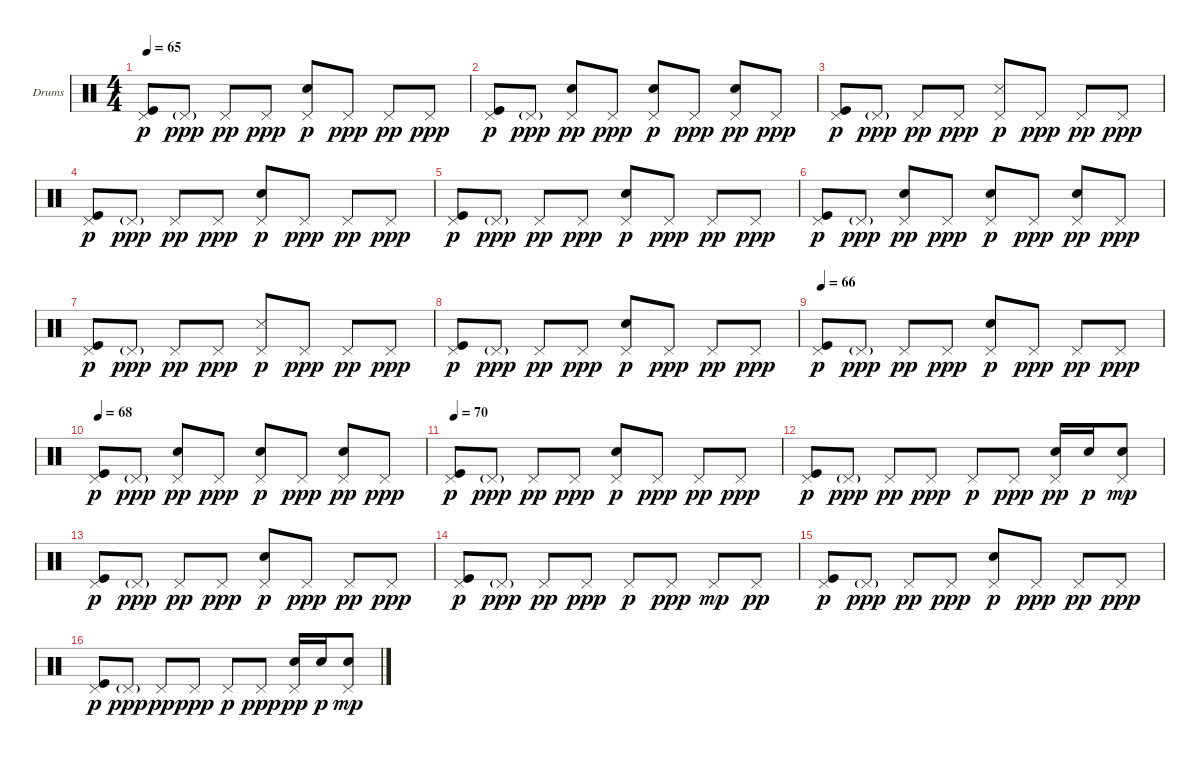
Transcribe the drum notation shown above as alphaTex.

\defaultSystemsLayout 4
\bracketExtendMode groupsimilarinstruments
\firstSystemTrackNameOrientation horizontal
\otherSystemsTrackNameOrientation horizontal
\track ("Jeremiah Green" "Drums") {instrument percussion}
\staff {score}
\articulation defaults
\ts (4 4)
\tempo 65
\clef neutral
\scale
0.333333
\ks c
("Pedal Hi-Hat (hit)" "Kick (hit)").8{dy p} "Pedal Hi-Hat (hit)"{g}.8{dy ppp} "Pedal Hi-Hat (hit)".8{dy pp} "Pedal Hi-Hat (hit)".8{dy ppp} ("Snare (hit) 2" "Pedal Hi-Hat (hit)").8{dy p} "Pedal Hi-Hat (hit)".8{dy ppp} "Pedal Hi-Hat (hit)".8{dy pp} "Pedal Hi-Hat (hit)".8{dy ppp} |
\scale
0.333333 ("Pedal Hi-Hat (hit)" "Kick (hit)").8{dy p} "Pedal Hi-Hat (hit)"{g}.8{dy ppp} ("Pedal Hi-Hat (hit)" "Snare (hit) 2").8{dy pp} "Pedal Hi-Hat (hit)".8{dy ppp} ("Snare (hit) 2" "Pedal Hi-Hat (hit)").8{dy p} "Pedal Hi-Hat (hit)".8{dy ppp} ("Pedal Hi-Hat (hit)" "Snare (hit) 2").8{dy pp} "Pedal Hi-Hat (hit)".8{dy ppp} |
\scale
0.333333 ("Pedal Hi-Hat (hit)" "Kick (hit)").8{dy p} "Pedal Hi-Hat (hit)"{g}.8{dy ppp} "Pedal Hi-Hat (hit)".8{dy pp} "Pedal Hi-Hat (hit)".8{dy ppp} ("Snare (side stick) 3" "Pedal Hi-Hat (hit)").8{dy p} "Pedal Hi-Hat (hit)".8{dy ppp} "Pedal Hi-Hat (hit)".8{dy pp} "Pedal Hi-Hat (hit)".8{dy ppp} |
\scale
0.333333 ("Pedal Hi-Hat (hit)" "Kick (hit)").8{dy p} "Pedal Hi-Hat (hit)"{g}.8{dy ppp} "Pedal Hi-Hat (hit)".8{dy pp} "Pedal Hi-Hat (hit)".8{dy ppp} ("Snare (hit) 2" "Pedal Hi-Hat (hit)").8{dy p} "Pedal Hi-Hat (hit)".8{dy ppp} "Pedal Hi-Hat (hit)".8{dy pp} "Pedal Hi-Hat (hit)".8{dy ppp} |
\scale
0.333333 ("Pedal Hi-Hat (hit)" "Kick (hit)").8{dy p} "Pedal Hi-Hat (hit)"{g}.8{dy ppp} "Pedal Hi-Hat (hit)".8{dy pp} "Pedal Hi-Hat (hit)".8{dy ppp} ("Snare (hit) 2" "Pedal Hi-Hat (hit)").8{dy p} "Pedal Hi-Hat (hit)".8{dy ppp} "Pedal Hi-Hat (hit)".8{dy pp} "Pedal Hi-Hat (hit)".8{dy ppp} |
\scale
0.333333 ("Pedal Hi-Hat (hit)" "Kick (hit)").8{dy p} "Pedal Hi-Hat (hit)"{g}.8{dy ppp} ("Pedal Hi-Hat (hit)" "Snare (hit) 2").8{dy pp} "Pedal Hi-Hat (hit)".8{dy ppp} ("Snare (hit) 2" "Pedal Hi-Hat (hit)").8{dy p} "Pedal Hi-Hat (hit)".8{dy ppp} ("Pedal Hi-Hat (hit)" "Snare (hit) 2").8{dy pp} "Pedal Hi-Hat (hit)".8{dy ppp} |
\scale
0.333333 ("Pedal Hi-Hat (hit)" "Kick (hit)").8{dy p} "Pedal Hi-Hat (hit)"{g}.8{dy ppp} "Pedal Hi-Hat (hit)".8{dy pp} "Pedal Hi-Hat (hit)".8{dy ppp} ("Snare (side stick) 3" "Pedal Hi-Hat (hit)").8{dy p} "Pedal Hi-Hat (hit)".8{dy ppp} "Pedal Hi-Hat (hit)".8{dy pp} "Pedal Hi-Hat (hit)".8{dy ppp} |
\scale
0.333333 ("Pedal Hi-Hat (hit)" "Kick (hit)").8{dy p} "Pedal Hi-Hat (hit)"{g}.8{dy ppp} "Pedal Hi-Hat (hit)".8{dy pp} "Pedal Hi-Hat (hit)".8{dy ppp} ("Snare (hit) 2" "Pedal Hi-Hat (hit)").8{dy p} "Pedal Hi-Hat (hit)".8{dy ppp} "Pedal Hi-Hat (hit)".8{dy pp} "Pedal Hi-Hat (hit)".8{dy ppp} |
\tempo 66
\scale
0.333333 ("Pedal Hi-Hat (hit)" "Kick (hit)").8{dy p} "Pedal Hi-Hat (hit)"{g}.8{dy ppp} "Pedal Hi-Hat (hit)".8{dy pp} "Pedal Hi-Hat (hit)".8{dy ppp} ("Snare (hit) 2" "Pedal Hi-Hat (hit)").8{dy p} "Pedal Hi-Hat (hit)".8{dy ppp} "Pedal Hi-Hat (hit)".8{dy pp} "Pedal Hi-Hat (hit)".8{dy ppp} |
\tempo 68
\scale
0.333333 ("Pedal Hi-Hat (hit)" "Kick (hit)").8{dy p} "Pedal Hi-Hat (hit)"{g}.8{dy ppp} ("Pedal Hi-Hat (hit)" "Snare (hit) 2").8{dy pp} "Pedal Hi-Hat (hit)".8{dy ppp} ("Snare (hit) 2" "Pedal Hi-Hat (hit)").8{dy p} "Pedal Hi-Hat (hit)".8{dy ppp} ("Pedal Hi-Hat (hit)" "Snare (hit) 2").8{dy pp} "Pedal Hi-Hat (hit)".8{dy ppp} |
\tempo 70
\scale
0.333333 ("Pedal Hi-Hat (hit)" "Kick (hit)").8{dy p} "Pedal Hi-Hat (hit)"{g}.8{dy ppp} "Pedal Hi-Hat (hit)".8{dy pp} "Pedal Hi-Hat (hit)".8{dy ppp} ("Snare (hit) 2" "Pedal Hi-Hat (hit)").8{dy p} "Pedal Hi-Hat (hit)".8{dy ppp} "Pedal Hi-Hat (hit)".8{dy pp} "Pedal Hi-Hat (hit)".8{dy ppp} |
\scale
0.333333 ("Pedal Hi-Hat (hit)" "Kick (hit)").8{dy p} "Pedal Hi-Hat (hit)"{g}.8{dy ppp} "Pedal Hi-Hat (hit)".8{dy pp} "Pedal Hi-Hat (hit)".8{dy ppp} "Pedal Hi-Hat (hit)".8{dy p} "Pedal Hi-Hat (hit)".8{dy ppp} ("Pedal Hi-Hat (hit)" "Snare (hit) 2").16{dy pp} "Snare (hit) 2".16{dy p} ("Pedal Hi-Hat (hit)" "Snare (hit) 2").8{dy mp} |
\scale
0.333333 ("Pedal Hi-Hat (hit)" "Kick (hit)").8{dy p} "Pedal Hi-Hat (hit)"{g}.8{dy ppp} "Pedal Hi-Hat (hit)".8{dy pp} "Pedal Hi-Hat (hit)".8{dy ppp} ("Snare (hit) 2" "Pedal Hi-Hat (hit)").8{dy p} "Pedal Hi-Hat (hit)".8{dy ppp} "Pedal Hi-Hat (hit)".8{dy pp} "Pedal Hi-Hat (hit)".8{dy ppp} |
\scale
0.333333 ("Pedal Hi-Hat (hit)" "Kick (hit)").8{dy p} "Pedal Hi-Hat (hit)"{g}.8{dy ppp} "Pedal Hi-Hat (hit)".8{dy pp} "Pedal Hi-Hat (hit)".8{dy ppp} "Pedal Hi-Hat (hit)".8{dy p} "Pedal Hi-Hat (hit)".8{dy ppp} "Pedal Hi-Hat (hit)".8{dy mp} "Pedal Hi-Hat (hit)".8{dy pp} |
\scale
0.333333 ("Pedal Hi-Hat (hit)" "Kick (hit)").8{dy p} "Pedal Hi-Hat (hit)"{g}.8{dy ppp} "Pedal Hi-Hat (hit)".8{dy pp} "Pedal Hi-Hat (hit)".8{dy ppp} ("Snare (hit) 2" "Pedal Hi-Hat (hit)").8{dy p} "Pedal Hi-Hat (hit)".8{dy ppp} "Pedal Hi-Hat (hit)".8{dy pp} "Pedal Hi-Hat (hit)".8{dy ppp} |
\scale
0.333333 ("Pedal Hi-Hat (hit)" "Kick (hit)").8{dy p} "Pedal Hi-Hat (hit)"{g}.8{dy ppp} "Pedal Hi-Hat (hit)".8{dy pp} "Pedal Hi-Hat (hit)".8{dy ppp} "Pedal Hi-Hat (hit)".8{dy p} "Pedal Hi-Hat (hit)".8{dy ppp} ("Pedal Hi-Hat (hit)" "Snare (hit) 2").16{dy pp} "Snare (hit) 2".16{dy p} ("Pedal Hi-Hat (hit)" "Snare (hit) 2").8{dy mp}
